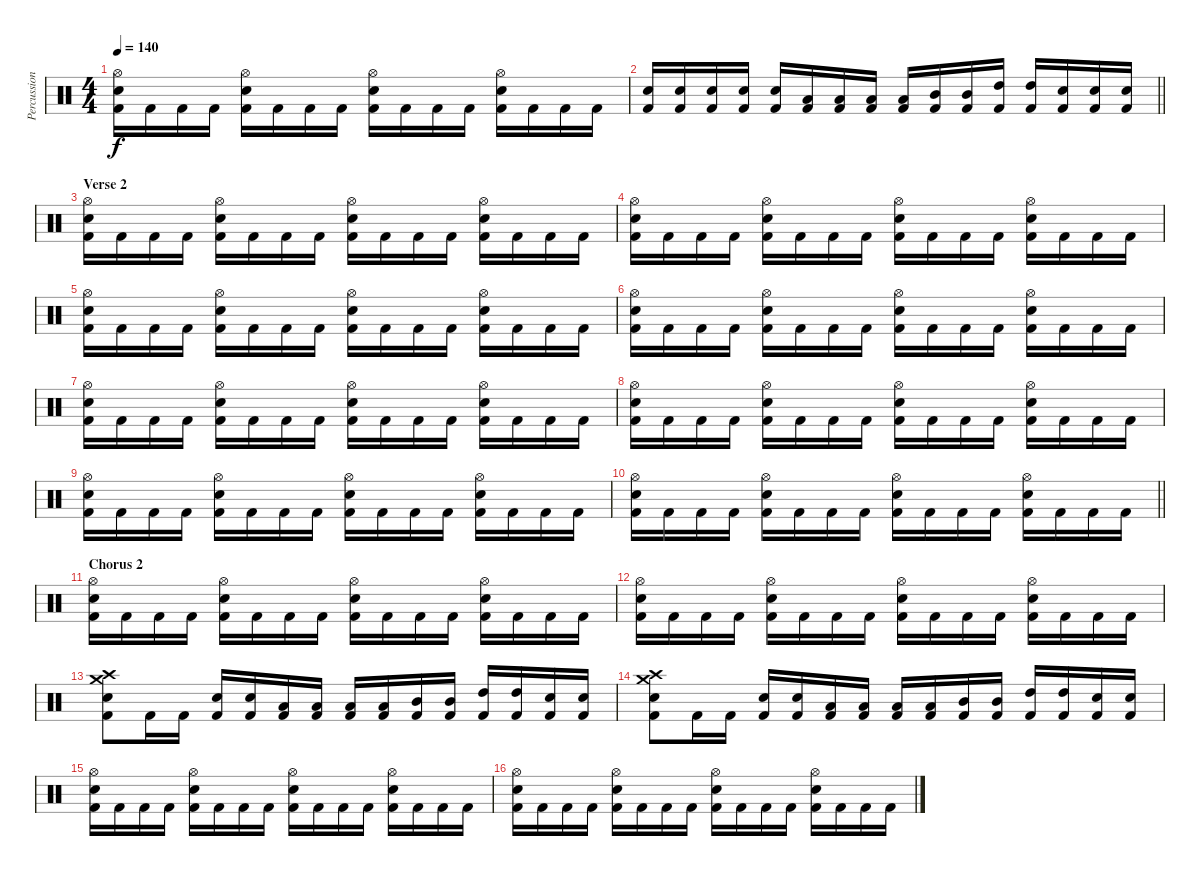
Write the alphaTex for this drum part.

\track ("Percussioni" "Percussion") {instrument percussion}
\staff {score}
\articulation defaults
\ts (4 4)
\tempo 140
\clef neutral
\ks c
("Hi-Hat (open)" "Electric Snare (hit)" "Kick (hit) 2").16{dy f} "Kick (hit) 2".16 "Kick (hit) 2".16 "Kick (hit) 2".16 ("Hi-Hat (open)" "Electric Snare (hit)" "Kick (hit) 2").16 "Kick (hit) 2".16 "Kick (hit) 2".16 "Kick (hit) 2".16 ("Hi-Hat (open)" "Electric Snare (hit)" "Kick (hit) 2").16 "Kick (hit) 2".16 "Kick (hit) 2".16 "Kick (hit) 2".16 ("Hi-Hat (open)" "Electric Snare (hit)" "Kick (hit) 2").16 "Kick (hit) 2".16 "Kick (hit) 2".16 "Kick (hit) 2".16 |
\barLineRight lightlight
("Electric Snare (hit)" "Kick (hit) 2").16 ("Electric Snare (hit)" "Kick (hit) 2").16 ("Electric Snare (hit)" "Kick (hit) 2").16 ("Electric Snare (hit)" "Kick (hit) 2").16 ("Electric Snare (hit)" "Kick (hit) 2").16 ("Low Floor Tom (hit)" "Kick (hit) 2").16 ("Low Floor Tom (hit)" "Kick (hit) 2").16 ("Low Tom (hit)" "Kick (hit) 2").16 ("Low Tom (hit)" "Kick (hit) 2").16 ("Mid Tom (hit)" "Kick (hit) 2").16 ("Mid Tom (hit)" "Kick (hit) 2").16 ("High Tom (hit)" "Kick (hit) 2").16 ("High Tom (hit)" "Kick (hit) 2").16 ("Electric Snare (hit)" "Kick (hit) 2").16 ("Electric Snare (hit)" "Kick (hit) 2").16 ("Electric Snare (hit)" "Kick (hit) 2").16 |
\section ("" "Verse 2")
("Hi-Hat (open)" "Electric Snare (hit)" "Kick (hit) 2").16 "Kick (hit) 2".16 "Kick (hit) 2".16 "Kick (hit) 2".16 ("Hi-Hat (open)" "Electric Snare (hit)" "Kick (hit) 2").16 "Kick (hit) 2".16 "Kick (hit) 2".16 "Kick (hit) 2".16 ("Hi-Hat (open)" "Electric Snare (hit)" "Kick (hit) 2").16 "Kick (hit) 2".16 "Kick (hit) 2".16 "Kick (hit) 2".16 ("Hi-Hat (open)" "Electric Snare (hit)" "Kick (hit) 2").16 "Kick (hit) 2".16 "Kick (hit) 2".16 "Kick (hit) 2".16 |
("Hi-Hat (open)" "Electric Snare (hit)" "Kick (hit) 2").16 "Kick (hit) 2".16 "Kick (hit) 2".16 "Kick (hit) 2".16 ("Hi-Hat (open)" "Electric Snare (hit)" "Kick (hit) 2").16 "Kick (hit) 2".16 "Kick (hit) 2".16 "Kick (hit) 2".16 ("Hi-Hat (open)" "Electric Snare (hit)" "Kick (hit) 2").16 "Kick (hit) 2".16 "Kick (hit) 2".16 "Kick (hit) 2".16 ("Hi-Hat (open)" "Electric Snare (hit)" "Kick (hit) 2").16 "Kick (hit) 2".16 "Kick (hit) 2".16 "Kick (hit) 2".16 |
("Hi-Hat (open)" "Electric Snare (hit)" "Kick (hit) 2").16 "Kick (hit) 2".16 "Kick (hit) 2".16 "Kick (hit) 2".16 ("Hi-Hat (open)" "Electric Snare (hit)" "Kick (hit) 2").16 "Kick (hit) 2".16 "Kick (hit) 2".16 "Kick (hit) 2".16 ("Hi-Hat (open)" "Electric Snare (hit)" "Kick (hit) 2").16 "Kick (hit) 2".16 "Kick (hit) 2".16 "Kick (hit) 2".16 ("Hi-Hat (open)" "Electric Snare (hit)" "Kick (hit) 2").16 "Kick (hit) 2".16 "Kick (hit) 2".16 "Kick (hit) 2".16 |
("Hi-Hat (open)" "Electric Snare (hit)" "Kick (hit) 2").16 "Kick (hit) 2".16 "Kick (hit) 2".16 "Kick (hit) 2".16 ("Hi-Hat (open)" "Electric Snare (hit)" "Kick (hit) 2").16 "Kick (hit) 2".16 "Kick (hit) 2".16 "Kick (hit) 2".16 ("Hi-Hat (open)" "Electric Snare (hit)" "Kick (hit) 2").16 "Kick (hit) 2".16 "Kick (hit) 2".16 "Kick (hit) 2".16 ("Hi-Hat (open)" "Electric Snare (hit)" "Kick (hit) 2").16 "Kick (hit) 2".16 "Kick (hit) 2".16 "Kick (hit) 2".16 |
("Hi-Hat (open)" "Electric Snare (hit)" "Kick (hit) 2").16 "Kick (hit) 2".16 "Kick (hit) 2".16 "Kick (hit) 2".16 ("Hi-Hat (open)" "Electric Snare (hit)" "Kick (hit) 2").16 "Kick (hit) 2".16 "Kick (hit) 2".16 "Kick (hit) 2".16 ("Hi-Hat (open)" "Electric Snare (hit)" "Kick (hit) 2").16 "Kick (hit) 2".16 "Kick (hit) 2".16 "Kick (hit) 2".16 ("Hi-Hat (open)" "Electric Snare (hit)" "Kick (hit) 2").16 "Kick (hit) 2".16 "Kick (hit) 2".16 "Kick (hit) 2".16 |
("Hi-Hat (open)" "Electric Snare (hit)" "Kick (hit) 2").16 "Kick (hit) 2".16 "Kick (hit) 2".16 "Kick (hit) 2".16 ("Hi-Hat (open)" "Electric Snare (hit)" "Kick (hit) 2").16 "Kick (hit) 2".16 "Kick (hit) 2".16 "Kick (hit) 2".16 ("Hi-Hat (open)" "Electric Snare (hit)" "Kick (hit) 2").16 "Kick (hit) 2".16 "Kick (hit) 2".16 "Kick (hit) 2".16 ("Hi-Hat (open)" "Electric Snare (hit)" "Kick (hit) 2").16 "Kick (hit) 2".16 "Kick (hit) 2".16 "Kick (hit) 2".16 |
("Hi-Hat (open)" "Electric Snare (hit)" "Kick (hit) 2").16 "Kick (hit) 2".16 "Kick (hit) 2".16 "Kick (hit) 2".16 ("Hi-Hat (open)" "Electric Snare (hit)" "Kick (hit) 2").16 "Kick (hit) 2".16 "Kick (hit) 2".16 "Kick (hit) 2".16 ("Hi-Hat (open)" "Electric Snare (hit)" "Kick (hit) 2").16 "Kick (hit) 2".16 "Kick (hit) 2".16 "Kick (hit) 2".16 ("Hi-Hat (open)" "Electric Snare (hit)" "Kick (hit) 2").16 "Kick (hit) 2".16 "Kick (hit) 2".16 "Kick (hit) 2".16 |
\barLineRight lightlight
("Hi-Hat (open)" "Electric Snare (hit)" "Kick (hit) 2").16 "Kick (hit) 2".16 "Kick (hit) 2".16 "Kick (hit) 2".16 ("Hi-Hat (open)" "Electric Snare (hit)" "Kick (hit) 2").16 "Kick (hit) 2".16 "Kick (hit) 2".16 "Kick (hit) 2".16 ("Hi-Hat (open)" "Electric Snare (hit)" "Kick (hit) 2").16 "Kick (hit) 2".16 "Kick (hit) 2".16 "Kick (hit) 2".16 ("Hi-Hat (open)" "Electric Snare (hit)" "Kick (hit) 2").16 "Kick (hit) 2".16 "Kick (hit) 2".16 "Kick (hit) 2".16 |
\section ("" "Chorus 2")
("Hi-Hat (open)" "Electric Snare (hit)" "Kick (hit) 2").16 "Kick (hit) 2".16 "Kick (hit) 2".16 "Kick (hit) 2".16 ("Hi-Hat (open)" "Electric Snare (hit)" "Kick (hit) 2").16 "Kick (hit) 2".16 "Kick (hit) 2".16 "Kick (hit) 2".16 ("Hi-Hat (open)" "Electric Snare (hit)" "Kick (hit) 2").16 "Kick (hit) 2".16 "Kick (hit) 2".16 "Kick (hit) 2".16 ("Hi-Hat (open)" "Electric Snare (hit)" "Kick (hit) 2").16 "Kick (hit) 2".16 "Kick (hit) 2".16 "Kick (hit) 2".16 |
("Hi-Hat (open)" "Electric Snare (hit)" "Kick (hit) 2").16 "Kick (hit) 2".16 "Kick (hit) 2".16 "Kick (hit) 2".16 ("Hi-Hat (open)" "Electric Snare (hit)" "Kick (hit) 2").16 "Kick (hit) 2".16 "Kick (hit) 2".16 "Kick (hit) 2".16 ("Hi-Hat (open)" "Electric Snare (hit)" "Kick (hit) 2").16 "Kick (hit) 2".16 "Kick (hit) 2".16 "Kick (hit) 2".16 ("Hi-Hat (open)" "Electric Snare (hit)" "Kick (hit) 2").16 "Kick (hit) 2".16 "Kick (hit) 2".16 "Kick (hit) 2".16 |
("Crash high (hit)" "Crash medium (hit)" "Electric Snare (hit)" "Kick (hit) 2").8 "Kick (hit) 2".16 "Kick (hit) 2".16 ("Electric Snare (hit)" "Kick (hit) 2").16 ("Electric Snare (hit)" "Kick (hit) 2").16 ("Low Floor Tom (hit)" "Kick (hit) 2").16 ("Low Floor Tom (hit)" "Kick (hit) 2").16 ("Low Tom (hit)" "Kick (hit) 2").16 ("Low Tom (hit)" "Kick (hit) 2").16 ("Mid Tom (hit)" "Kick (hit) 2").16 ("Mid Tom (hit)" "Kick (hit) 2").16 ("High Tom (hit)" "Kick (hit) 2").16 ("High Tom (hit)" "Kick (hit) 2").16 ("Electric Snare (hit)" "Kick (hit) 2").16 ("Electric Snare (hit)" "Kick (hit) 2").16 |
("Crash high (hit)" "Crash medium (hit)" "Electric Snare (hit)" "Kick (hit) 2").8 "Kick (hit) 2".16 "Kick (hit) 2".16 ("Electric Snare (hit)" "Kick (hit) 2").16 ("Electric Snare (hit)" "Kick (hit) 2").16 ("Low Floor Tom (hit)" "Kick (hit) 2").16 ("Low Floor Tom (hit)" "Kick (hit) 2").16 ("Low Tom (hit)" "Kick (hit) 2").16 ("Low Tom (hit)" "Kick (hit) 2").16 ("Mid Tom (hit)" "Kick (hit) 2").16 ("Mid Tom (hit)" "Kick (hit) 2").16 ("High Tom (hit)" "Kick (hit) 2").16 ("High Tom (hit)" "Kick (hit) 2").16 ("Electric Snare (hit)" "Kick (hit) 2").16 ("Electric Snare (hit)" "Kick (hit) 2").16 |
("Hi-Hat (open)" "Electric Snare (hit)" "Kick (hit) 2").16 "Kick (hit) 2".16 "Kick (hit) 2".16 "Kick (hit) 2".16 ("Hi-Hat (open)" "Electric Snare (hit)" "Kick (hit) 2").16 "Kick (hit) 2".16 "Kick (hit) 2".16 "Kick (hit) 2".16 ("Hi-Hat (open)" "Electric Snare (hit)" "Kick (hit) 2").16 "Kick (hit) 2".16 "Kick (hit) 2".16 "Kick (hit) 2".16 ("Hi-Hat (open)" "Electric Snare (hit)" "Kick (hit) 2").16 "Kick (hit) 2".16 "Kick (hit) 2".16 "Kick (hit) 2".16 |
("Hi-Hat (open)" "Electric Snare (hit)" "Kick (hit) 2").16 "Kick (hit) 2".16 "Kick (hit) 2".16 "Kick (hit) 2".16 ("Hi-Hat (open)" "Electric Snare (hit)" "Kick (hit) 2").16 "Kick (hit) 2".16 "Kick (hit) 2".16 "Kick (hit) 2".16 ("Hi-Hat (open)" "Electric Snare (hit)" "Kick (hit) 2").16 "Kick (hit) 2".16 "Kick (hit) 2".16 "Kick (hit) 2".16 ("Hi-Hat (open)" "Electric Snare (hit)" "Kick (hit) 2").16 "Kick (hit) 2".16 "Kick (hit) 2".16 "Kick (hit) 2".16
